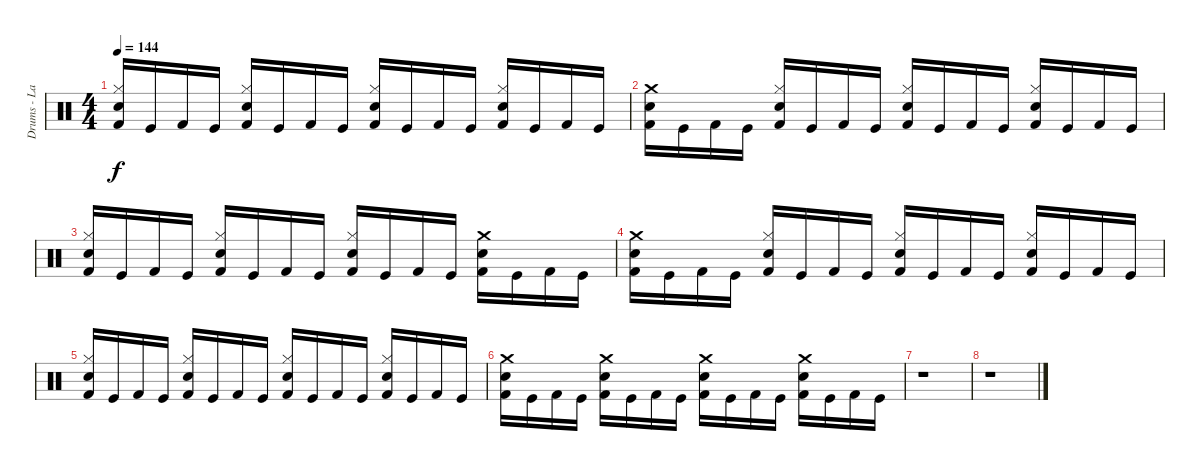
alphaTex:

\track ("Drums - Lars" "Drums - La") {instrument percussion}
\staff {score}
\articulation defaults
\ts (4 4)
\tempo 144
\clef neutral
\ks c
("Snare (hit) 2" "Hi-Hat (closed)" "Kick (hit) 2").16{dy f} "Kick (hit)".16 "Kick (hit) 2".16 "Kick (hit)".16 ("Snare (hit) 2" "Hi-Hat (closed)" "Kick (hit) 2").16 "Kick (hit)".16 "Kick (hit) 2".16 "Kick (hit)".16 ("Snare (hit) 2" "Hi-Hat (closed)" "Kick (hit) 2").16 "Kick (hit)".16 "Kick (hit) 2".16 "Kick (hit)".16 ("Snare (hit) 2" "Hi-Hat (closed)" "Kick (hit) 2").16 "Kick (hit)".16 "Kick (hit) 2".16 "Kick (hit)".16 |
("Snare (hit) 2" "Crash medium (hit)" "Kick (hit) 2").16 "Kick (hit)".16 "Kick (hit) 2".16 "Kick (hit)".16 ("Hi-Hat (closed)" "Snare (hit) 2" "Kick (hit) 2").16 "Kick (hit)".16 "Kick (hit) 2".16 "Kick (hit)".16 ("Hi-Hat (closed)" "Snare (hit) 2" "Kick (hit) 2").16 "Kick (hit)".16 "Kick (hit) 2".16 "Kick (hit)".16 ("Hi-Hat (closed)" "Snare (hit) 2" "Kick (hit) 2").16 "Kick (hit)".16 "Kick (hit) 2".16 "Kick (hit)".16 |
("Snare (hit) 2" "Hi-Hat (closed)" "Kick (hit) 2").16 "Kick (hit)".16 "Kick (hit) 2".16 "Kick (hit)".16 ("Snare (hit) 2" "Hi-Hat (closed)" "Kick (hit) 2").16 "Kick (hit)".16 "Kick (hit) 2".16 "Kick (hit)".16 ("Snare (hit) 2" "Hi-Hat (closed)" "Kick (hit) 2").16 "Kick (hit)".16 "Kick (hit) 2".16 "Kick (hit)".16 ("Crash medium (hit)" "Snare (hit) 2" "Kick (hit) 2").16 "Kick (hit)".16 "Kick (hit) 2".16 "Kick (hit)".16 |
("Snare (hit) 2" "Crash medium (hit)" "Kick (hit) 2").16 "Kick (hit)".16 "Kick (hit) 2".16 "Kick (hit)".16 ("Hi-Hat (closed)" "Snare (hit) 2" "Kick (hit) 2").16 "Kick (hit)".16 "Kick (hit) 2".16 "Kick (hit)".16 ("Hi-Hat (closed)" "Snare (hit) 2" "Kick (hit) 2").16 "Kick (hit)".16 "Kick (hit) 2".16 "Kick (hit)".16 ("Hi-Hat (closed)" "Snare (hit) 2" "Kick (hit) 2").16 "Kick (hit)".16 "Kick (hit) 2".16 "Kick (hit)".16 |
("Snare (hit) 2" "Hi-Hat (closed)" "Kick (hit) 2").16 "Kick (hit)".16 "Kick (hit) 2".16 "Kick (hit)".16 ("Snare (hit) 2" "Hi-Hat (closed)" "Kick (hit) 2").16 "Kick (hit)".16 "Kick (hit) 2".16 "Kick (hit)".16 ("Snare (hit) 2" "Hi-Hat (closed)" "Kick (hit) 2").16 "Kick (hit)".16 "Kick (hit) 2".16 "Kick (hit)".16 ("Snare (hit) 2" "Hi-Hat (closed)" "Kick (hit) 2").16 "Kick (hit)".16 "Kick (hit) 2".16 "Kick (hit)".16 |
("Crash medium (hit)" "Snare (hit) 2" "Kick (hit) 2").16 "Kick (hit)".16 "Kick (hit) 2".16 "Kick (hit)".16 ("Crash medium (hit)" "Snare (hit) 2" "Kick (hit) 2").16 "Kick (hit)".16 "Kick (hit) 2".16 "Kick (hit)".16 ("Crash medium (hit)" "Snare (hit) 2" "Kick (hit) 2").16 "Kick (hit)".16 "Kick (hit) 2".16 "Kick (hit)".16 ("Crash medium (hit)" "Snare (hit) 2" "Kick (hit) 2").16 "Kick (hit)".16 "Kick (hit) 2".16 "Kick (hit)".16 |
r.1 |
r.1
